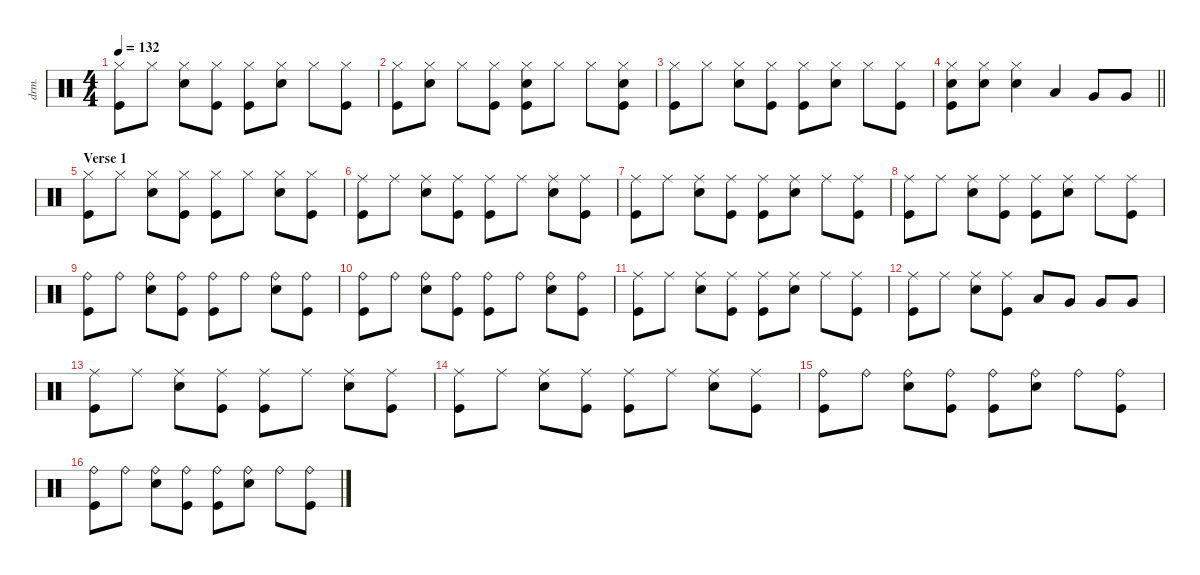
\defaultSystemsLayout 4
\hideDynamics
\bracketExtendMode nobrackets
\otherSystemsTrackNameOrientation horizontal
\track ("Drums" "drm.") {instrument percussion}
\staff {score}
\articulation defaults
\ts (4 4)
\tempo 132
\clef neutral
\ks c
("Hi-Hat (closed)" "Kick (hit)").8{dy f beam Down} "Hi-Hat (closed)".8{beam Down} ("Hi-Hat (closed)" "Snare (hit) 2").8{beam Down} ("Hi-Hat (closed)" "Kick (hit)").8{beam Down} ("Hi-Hat (closed)" "Kick (hit)").8{beam Down} ("Hi-Hat (closed)" "Snare (hit) 2").8{beam Down} "Hi-Hat (closed)".8{beam Down} ("Hi-Hat (closed)" "Kick (hit)").8{beam Down} |
("Hi-Hat (closed)" "Kick (hit)").8{beam Down} ("Hi-Hat (closed)" "Snare (hit) 2").8{beam Down} "Hi-Hat (closed)".8{beam Down} ("Hi-Hat (closed)" "Kick (hit)").8{beam Down} ("Hi-Hat (closed)" "Snare (hit) 2" "Kick (hit)").8{beam Down} "Hi-Hat (closed)".8{beam Down} "Hi-Hat (closed)".8{beam Down} ("Hi-Hat (closed)" "Snare (hit) 2" "Kick (hit)").8{beam Down} |
("Hi-Hat (closed)" "Kick (hit)").8{beam Down} "Hi-Hat (closed)".8{beam Down} ("Hi-Hat (closed)" "Snare (hit) 2").8{beam Down} ("Hi-Hat (closed)" "Kick (hit)").8{beam Down} ("Hi-Hat (closed)" "Kick (hit)").8{beam Down} ("Hi-Hat (closed)" "Snare (hit) 2").8{beam Down} "Hi-Hat (closed)".8{beam Down} ("Hi-Hat (closed)" "Kick (hit)").8{beam Down} |
\barLineRight lightlight
("Hi-Hat (closed)" "Snare (hit) 2" "Kick (hit)").8{beam Down} ("Hi-Hat (closed)" "Snare (hit) 2").8{beam Down} ("Hi-Hat (closed)" "Snare (hit) 2").4{beam Down} "Low Tom (hit)".4{beam Up} "Very Low Tom (hit)".8{beam Up} "Very Low Tom (hit)".8{beam Up} |
\section ("" "Verse 1")
("Hi-Hat (closed)" "Kick (hit)").8{beam Down} "Hi-Hat (closed)".8{beam Down} ("Hi-Hat (closed)" "Snare (hit) 2").8{beam Down} ("Hi-Hat (closed)" "Kick (hit)").8{beam Down} ("Hi-Hat (closed)" "Kick (hit)").8{beam Down} "Hi-Hat (closed)".8{beam Down} ("Hi-Hat (closed)" "Snare (hit) 2").8{beam Down} ("Hi-Hat (closed)" "Kick (hit)").8{beam Down} |
("Ride (middle)" "Kick (hit)").8{beam Down} "Ride (middle)".8{beam Down} ("Ride (middle)" "Snare (hit) 2").8{beam Down} ("Ride (middle)" "Kick (hit)").8{beam Down} ("Ride (middle)" "Kick (hit)").8{beam Down} "Ride (middle)".8{beam Down} ("Ride (middle)" "Snare (hit) 2").8{beam Down} ("Ride (middle)" "Kick (hit)").8{beam Down} |
("Ride (middle)" "Kick (hit)").8{beam Down} "Ride (middle)".8{beam Down} ("Ride (middle)" "Snare (hit) 2").8{beam Down} ("Ride (middle)" "Kick (hit)").8{beam Down} ("Ride (middle)" "Kick (hit)").8{beam Down} ("Ride (middle)" "Snare (hit) 2").8{beam Down} "Ride (middle)".8{beam Down} ("Ride (middle)" "Kick (hit)").8{beam Down} |
("Ride (middle)" "Kick (hit)").8{beam Down} "Ride (middle)".8{beam Down} ("Ride (middle)" "Snare (hit) 2").8{beam Down} ("Ride (middle)" "Kick (hit)").8{beam Down} ("Ride (middle)" "Kick (hit)").8{beam Down} ("Ride (middle)" "Snare (hit) 2").8{beam Down} "Ride (middle)".8{beam Down} ("Ride (middle)" "Kick (hit)").8{beam Down} |
("Ride (bell)" "Kick (hit)").8{beam Down} "Ride (bell)".8{beam Down} ("Ride (bell)" "Snare (hit) 2").8{beam Down} ("Ride (bell)" "Kick (hit)").8{beam Down} ("Ride (bell)" "Kick (hit)").8{beam Down} "Ride (bell)".8{beam Down} ("Ride (bell)" "Snare (hit) 2").8{beam Down} ("Ride (bell)" "Kick (hit)").8{beam Down} |
("Ride (bell)" "Kick (hit)").8{beam Down} "Ride (bell)".8{beam Down} ("Ride (bell)" "Snare (hit) 2").8{beam Down} ("Ride (bell)" "Kick (hit)").8{beam Down} ("Ride (bell)" "Kick (hit)").8{beam Down} "Ride (bell)".8{beam Down} ("Ride (bell)" "Snare (hit) 2").8{beam Down} ("Ride (bell)" "Kick (hit)").8{beam Down} |
("Ride (middle)" "Kick (hit)").8{beam Down} "Ride (middle)".8{beam Down} ("Ride (middle)" "Snare (hit) 2").8{beam Down} ("Ride (middle)" "Kick (hit)").8{beam Down} ("Ride (middle)" "Kick (hit)").8{beam Down} ("Ride (middle)" "Snare (hit) 2").8{beam Down} "Ride (middle)".8{beam Down} ("Ride (middle)" "Kick (hit)").8{beam Down} |
("Ride (middle)" "Kick (hit)").8{beam Down} "Ride (middle)".8{beam Down} ("Ride (middle)" "Snare (hit) 2").8{beam Down} ("Ride (middle)" "Kick (hit)").8{beam Down} "Low Tom (hit)".8{beam Up} "Very Low Tom (hit)".8{beam Up} "Very Low Tom (hit)".8{beam Up} "Very Low Tom (hit)".8{beam Up} |
("Ride (middle)" "Kick (hit)").8{beam Down} "Ride (middle)".8{beam Down} ("Ride (middle)" "Snare (hit) 2").8{beam Down} ("Ride (middle)" "Kick (hit)").8{beam Down} ("Ride (middle)" "Kick (hit)").8{beam Down} "Ride (middle)".8{beam Down} ("Ride (middle)" "Snare (hit) 2").8{beam Down} ("Ride (middle)" "Kick (hit)").8{beam Down} |
("Ride (middle)" "Kick (hit)").8{beam Down} "Ride (middle)".8{beam Down} ("Ride (middle)" "Snare (hit) 2").8{beam Down} ("Ride (middle)" "Kick (hit)").8{beam Down} ("Ride (middle)" "Kick (hit)").8{beam Down} "Ride (middle)".8{beam Down} ("Ride (middle)" "Snare (hit) 2").8{beam Down} ("Ride (middle)" "Kick (hit)").8{beam Down} |
("Ride (bell)" "Kick (hit)").8{beam Down} "Ride (bell)".8{beam Down} ("Ride (bell)" "Snare (hit) 2").8{beam Down} ("Ride (bell)" "Kick (hit)").8{beam Down} ("Ride (bell)" "Kick (hit)").8{beam Down} ("Ride (bell)" "Snare (hit) 2").8{beam Down} "Ride (bell)".8{beam Down} ("Ride (bell)" "Kick (hit)").8{beam Down} |
("Ride (bell)" "Kick (hit)").8{beam Down} "Ride (bell)".8{beam Down} ("Ride (bell)" "Snare (hit) 2").8{beam Down} ("Ride (bell)" "Kick (hit)").8{beam Down} ("Ride (bell)" "Kick (hit)").8{beam Down} ("Ride (bell)" "Snare (hit) 2").8{beam Down} "Ride (bell)".8{beam Down} ("Ride (bell)" "Kick (hit)").8{beam Down}
